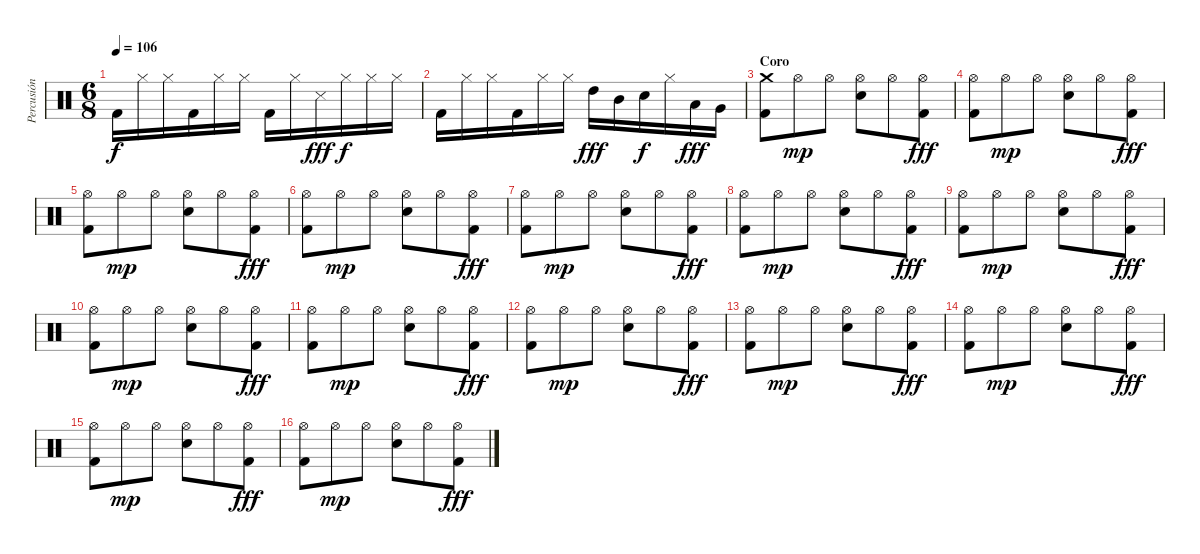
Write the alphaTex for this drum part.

\track ("Percusión" "Percusión") {instrument percussion}
\staff {score}
\articulation defaults
\ts (6 8)
\tempo 106
\clef neutral
\ks c "Kick (hit) 2".16{dy f} "Hi-Hat (closed)".16 "Hi-Hat (closed)".16 "Kick (hit) 2".16 "Hi-Hat (closed)".16 "Hi-Hat (closed)".16 "Kick (hit) 2".16 "Hi-Hat (closed)".16 "Snare (side stick) 3".16{dy fff} "Hi-Hat (closed)".16{dy f} "Hi-Hat (closed)".16 "Hi-Hat (closed)".16
|
"Kick (hit) 2".16 "Hi-Hat (closed)".16 "Hi-Hat (closed)".16 "Kick (hit) 2".16 "Hi-Hat (closed)".16 "Hi-Hat (closed)".16 "High Tom (hit)".16{dy fff} "Mid Tom (hit)".16 "Snare (hit) 2".16{dy f} "Hi-Hat (closed)".16 "Low Tom (hit)".16{dy fff} "Very Low Tom (hit)".16 |
\section ("" "Coro")
("Crash medium (hit)" "Kick (hit) 2").8 "Hi-Hat (open)".8{dy mp} "Hi-Hat (open)".8 ("Hi-Hat (open)" "Snare (hit) 2").8 "Hi-Hat (open)".8 ("Hi-Hat (open)" "Kick (hit) 2").8{dy fff} |
("Hi-Hat (open)" "Kick (hit) 2").8 "Hi-Hat (open)".8{dy mp} "Hi-Hat (open)".8 ("Hi-Hat (open)" "Snare (hit) 2").8 "Hi-Hat (open)".8 ("Hi-Hat (open)" "Kick (hit) 2").8{dy fff} |
("Hi-Hat (open)" "Kick (hit) 2").8 "Hi-Hat (open)".8{dy mp} "Hi-Hat (open)".8 ("Hi-Hat (open)" "Snare (hit) 2").8 "Hi-Hat (open)".8 ("Hi-Hat (open)" "Kick (hit) 2").8{dy fff} |
("Hi-Hat (open)" "Kick (hit) 2").8 "Hi-Hat (open)".8{dy mp} "Hi-Hat (open)".8 ("Hi-Hat (open)" "Snare (hit) 2").8 "Hi-Hat (open)".8 ("Hi-Hat (open)" "Kick (hit) 2").8{dy fff} |
("Hi-Hat (open)" "Kick (hit) 2").8 "Hi-Hat (open)".8{dy mp} "Hi-Hat (open)".8 ("Hi-Hat (open)" "Snare (hit) 2").8 "Hi-Hat (open)".8 ("Hi-Hat (open)" "Kick (hit) 2").8{dy fff} |
("Hi-Hat (open)" "Kick (hit) 2").8 "Hi-Hat (open)".8{dy mp} "Hi-Hat (open)".8 ("Hi-Hat (open)" "Snare (hit) 2").8 "Hi-Hat (open)".8 ("Hi-Hat (open)" "Kick (hit) 2").8{dy fff} |
("Hi-Hat (open)" "Kick (hit) 2").8 "Hi-Hat (open)".8{dy mp} "Hi-Hat (open)".8 ("Hi-Hat (open)" "Snare (hit) 2").8 "Hi-Hat (open)".8 ("Hi-Hat (open)" "Kick (hit) 2").8{dy fff} |
("Hi-Hat (open)" "Kick (hit) 2").8 "Hi-Hat (open)".8{dy mp} "Hi-Hat (open)".8 ("Hi-Hat (open)" "Snare (hit) 2").8 "Hi-Hat (open)".8 ("Hi-Hat (open)" "Kick (hit) 2").8{dy fff} |
("Hi-Hat (open)" "Kick (hit) 2").8 "Hi-Hat (open)".8{dy mp} "Hi-Hat (open)".8 ("Hi-Hat (open)" "Snare (hit) 2").8 "Hi-Hat (open)".8 ("Hi-Hat (open)" "Kick (hit) 2").8{dy fff} |
("Hi-Hat (open)" "Kick (hit) 2").8 "Hi-Hat (open)".8{dy mp} "Hi-Hat (open)".8 ("Hi-Hat (open)" "Snare (hit) 2").8 "Hi-Hat (open)".8 ("Hi-Hat (open)" "Kick (hit) 2").8{dy fff} |
("Hi-Hat (open)" "Kick (hit) 2").8 "Hi-Hat (open)".8{dy mp} "Hi-Hat (open)".8 ("Hi-Hat (open)" "Snare (hit) 2").8 "Hi-Hat (open)".8 ("Hi-Hat (open)" "Kick (hit) 2").8{dy fff} |
("Hi-Hat (open)" "Kick (hit) 2").8 "Hi-Hat (open)".8{dy mp} "Hi-Hat (open)".8 ("Hi-Hat (open)" "Snare (hit) 2").8 "Hi-Hat (open)".8 ("Hi-Hat (open)" "Kick (hit) 2").8{dy fff} |
("Hi-Hat (open)" "Kick (hit) 2").8 "Hi-Hat (open)".8{dy mp} "Hi-Hat (open)".8 ("Hi-Hat (open)" "Snare (hit) 2").8 "Hi-Hat (open)".8 ("Hi-Hat (open)" "Kick (hit) 2").8{dy fff} |
("Hi-Hat (open)" "Kick (hit) 2").8 "Hi-Hat (open)".8{dy mp} "Hi-Hat (open)".8 ("Hi-Hat (open)" "Snare (hit) 2").8 "Hi-Hat (open)".8 ("Hi-Hat (open)" "Kick (hit) 2").8{dy fff}
